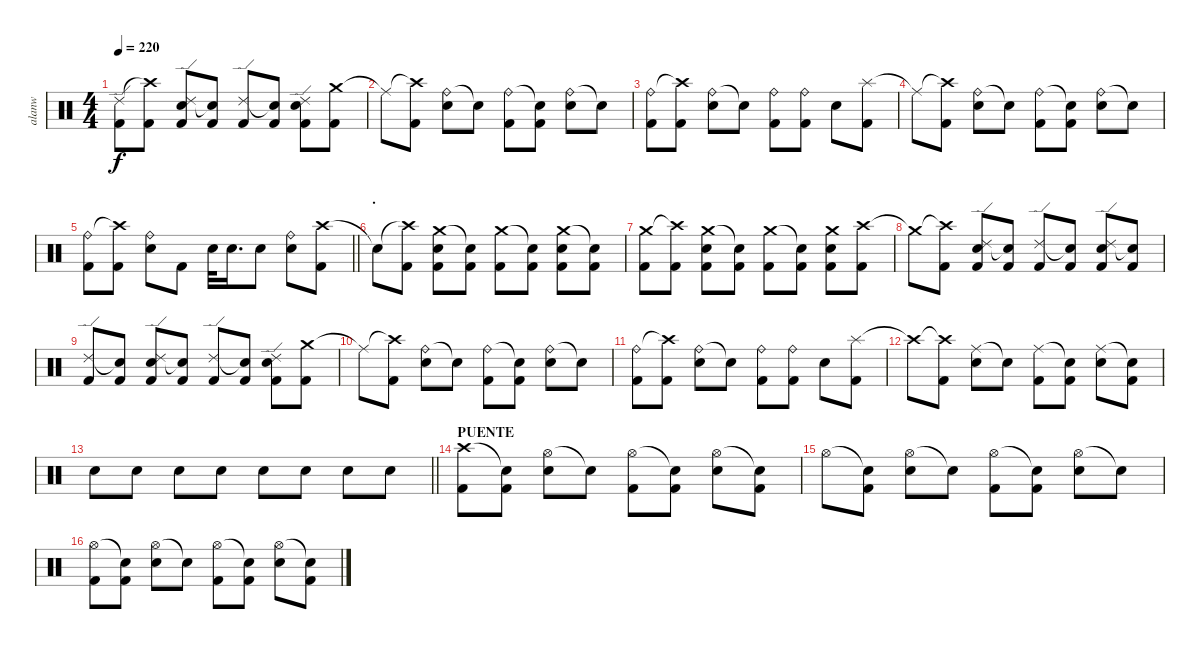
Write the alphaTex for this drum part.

\track ("alanw" "alanw") {instrument percussion}
\staff {score}
\articulation defaults
\ts (4 4)
\tempo 220
\clef neutral
\ks c
("Ride (edge) 2" "Kick (hit) 2").8{dy f} ("Crash high (hit)"{t} "Kick (hit) 2").8 ("Ride (edge) 2" "Electric Snare (hit)" "Kick (hit) 2").8 ("Snare (hit)"{t} "Kick (hit) 2").8 ("Ride (edge) 2" "Kick (hit) 2").8 ("Snare (hit)"{t} "Kick (hit) 2").8 ("Ride (edge) 2" "Electric Snare (hit)" "Kick (hit) 2").8 ("Crash medium (hit)" "Kick (hit) 2").8 |
"Ride (middle)"{t}.8 ("Crash high (hit)"{t} "Kick (hit) 2").8 ("Ride (bell)" "Electric Snare (hit)").8 "Snare (hit)"{t}.8 ("Ride (bell)" "Kick (hit) 2").8 ("Snare (hit)"{t} "Kick (hit) 2").8 ("Ride (bell)" "Electric Snare (hit)").8 "Snare (hit)"{t}.8 |
("Ride (bell)" "Kick (hit) 2").8 ("Crash high (hit)"{t} "Kick (hit) 2").8 ("Ride (bell)" "Electric Snare (hit)").8 "Snare (hit)"{t}.8 ("Ride (bell)" "Kick (hit) 2").8 ("Ride (bell)" "Kick (hit) 2").8 "Electric Snare (hit)".8 ("Splash (hit)" "Kick (hit) 2").8 |
"Ride (middle)"{t}.8 ("Crash high (hit)"{t} "Kick (hit) 2").8 ("Ride (bell)" "Electric Snare (hit)").8 "Snare (hit)"{t}.8 ("Ride (bell)" "Kick (hit) 2").8 ("Snare (hit)"{t} "Kick (hit) 2").8 ("Ride (bell)" "Electric Snare (hit)").8 "Snare (hit)"{t}.8 |
\barLineRight lightlight
("Ride (bell)" "Kick (hit) 2").8 ("Crash high (hit)"{t} "Kick (hit) 2").8 ("Ride (bell)" "Electric Snare (hit)").8 "Kick (hit) 2".8 "Electric Snare (hit)".32 "Electric Snare (hit)".16{d} "Electric Snare (hit)".8 ("Ride (bell)" "Electric Snare (hit)").8 ("Crash high (hit)" "Kick (hit) 2").8 |
\section ("" ".")
"Snare (hit)"{t}.8 ("Crash high (hit)"{t} "Kick (hit) 2").8 ("Crash medium (hit)" "Electric Snare (hit)" "Kick (hit) 2").8 ("Snare (hit)"{t} "Kick (hit) 2").8 ("Crash medium (hit)" "Kick (hit) 2").8 ("Snare (hit)"{t} "Kick (hit) 2").8 ("Crash medium (hit)" "Electric Snare (hit)" "Kick (hit) 2").8 ("Snare (hit)"{t} "Kick (hit) 2").8 |
("Crash medium (hit)" "Kick (hit) 2").8 ("Crash high (hit)"{t} "Kick (hit) 2").8 ("Crash medium (hit)" "Electric Snare (hit)" "Kick (hit) 2").8 ("Snare (hit)"{t} "Kick (hit) 2").8 ("Crash medium (hit)" "Kick (hit) 2").8 ("Snare (hit)"{t} "Kick (hit) 2").8 ("Crash medium (hit)" "Electric Snare (hit)" "Kick (hit) 2").8 ("Crash high (hit)" "Kick (hit) 2").8 |
"Crash medium (hit)"{t}.8 ("Crash high (hit)"{t} "Kick (hit) 2").8 ("Ride (edge) 2" "Electric Snare (hit)" "Kick (hit) 2").8 ("Snare (hit)"{t} "Kick (hit) 2").8 ("Ride (edge) 2" "Kick (hit) 2").8 ("Snare (hit)"{t} "Kick (hit) 2").8 ("Ride (edge) 2" "Electric Snare (hit)" "Kick (hit) 2").8 ("Snare (hit)"{t} "Kick (hit) 2").8 |
("Ride (edge) 2" "Kick (hit) 2").8 ("Snare (hit)"{t} "Kick (hit) 2").8 ("Ride (edge) 2" "Electric Snare (hit)" "Kick (hit) 2").8 ("Snare (hit)"{t} "Kick (hit) 2").8 ("Ride (edge) 2" "Kick (hit) 2").8 ("Snare (hit)"{t} "Kick (hit) 2").8 ("Ride (edge) 2" "Electric Snare (hit)" "Kick (hit) 2").8 ("Crash medium (hit)" "Kick (hit) 2").8 |
"Ride (middle)"{t}.8 ("Crash high (hit)"{t} "Kick (hit) 2").8 ("Ride (bell)" "Electric Snare (hit)").8 "Snare (hit)"{t}.8 ("Ride (bell)" "Kick (hit) 2").8 ("Snare (hit)"{t} "Kick (hit) 2").8 ("Ride (bell)" "Electric Snare (hit)").8 "Snare (hit)"{t}.8 |
("Ride (bell)" "Kick (hit) 2").8 ("Crash high (hit)"{t} "Kick (hit) 2").8 ("Ride (bell)" "Electric Snare (hit)").8 "Snare (hit)"{t}.8 ("Ride (bell)" "Kick (hit) 2").8 ("Ride (bell)" "Kick (hit) 2").8 "Electric Snare (hit)".8 ("Splash (hit)" "Kick (hit) 2").8 |
"Crash high (hit)"{t}.8 ("Crash high (hit)"{t} "Kick (hit) 2").8 ("Ride (middle)" "Electric Snare (hit)").8 "Snare (hit)"{t}.8 ("Ride (middle)" "Kick (hit) 2").8 ("Snare (hit)"{t} "Kick (hit) 2").8 ("Ride (middle)" "Electric Snare (hit)").8 ("Snare (hit)"{t} "Kick (hit) 2").8 |
\barLineRight lightlight "Electric Snare (hit)".8 "Electric Snare (hit)".8 "Electric Snare (hit)".8 "Electric Snare (hit)".8 "Electric Snare (hit)".8 "Electric Snare (hit)".8 "Electric Snare (hit)".8 "Electric Snare (hit)".8
|
\section ("" "PUENTE")
("Crash high (hit)" "Kick (hit) 2").8 ("Snare (hit)"{t} "Kick (hit) 2").8 ("Hi-Hat (open)" "Electric Snare (hit)").8 "Snare (hit)"{t}.8 ("Hi-Hat (open)" "Kick (hit) 2").8 ("Snare (hit)"{t} "Kick (hit) 2").8 ("Hi-Hat (open)" "Electric Snare (hit)").8 ("Snare (hit)"{t} "Kick (hit) 2").8 |
"Hi-Hat (open)".8 ("Snare (hit)"{t} "Kick (hit) 2").8 ("Hi-Hat (open)" "Electric Snare (hit)").8 "Snare (hit)"{t}.8 ("Hi-Hat (open)" "Kick (hit) 2").8 ("Snare (hit)"{t} "Kick (hit) 2").8 ("Hi-Hat (open)" "Electric Snare (hit)").8 "Snare (hit)"{t}.8 |
("Hi-Hat (open)" "Kick (hit) 2").8 ("Snare (hit)"{t} "Kick (hit) 2").8 ("Hi-Hat (open)" "Electric Snare (hit)").8 "Snare (hit)"{t}.8 ("Hi-Hat (open)" "Kick (hit) 2").8 ("Snare (hit)"{t} "Kick (hit) 2").8 ("Hi-Hat (open)" "Electric Snare (hit)").8 ("Snare (hit)"{t} "Kick (hit) 2").8
